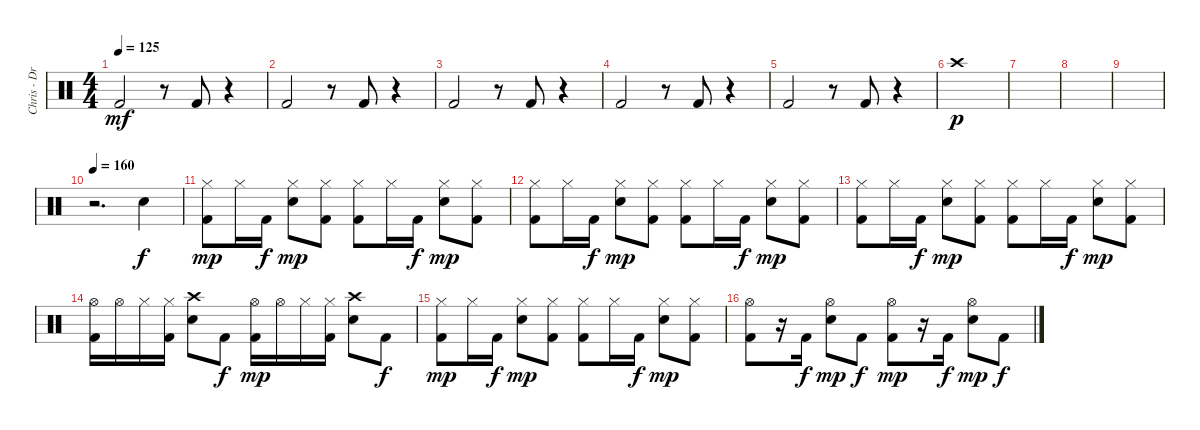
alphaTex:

\track ("Chris - Drums" "Chris - Dr") {instrument percussion}
\staff {score}
\articulation defaults
\ts (4 4)
\tempo 125
\clef neutral
\ks c "Kick (hit) 2".2{dy mf}
r.8 "Kick (hit) 2".8 r.4 |
"Kick (hit) 2".2 r.8 "Kick (hit) 2".8 r.4 |
"Kick (hit) 2".2 r.8 "Kick (hit) 2".8 r.4 |
"Kick (hit) 2".2 r.8 "Kick (hit) 2".8 r.4 |
"Kick (hit) 2".2 r.8 "Kick (hit) 2".8 r.4 |
"Crash high (hit)".1{dy p} |
|
|
|
\tempo 160
r.2{d} "Electric Snare (hit)".4{dy f} |
("Hi-Hat (closed)" "Kick (hit) 2").8{dy mp} "Hi-Hat (closed)".16 "Kick (hit) 2".16{dy f} ("Hi-Hat (closed)" "Electric Snare (hit)").8{dy mp} ("Hi-Hat (closed)" "Kick (hit) 2").8 ("Hi-Hat (closed)" "Kick (hit) 2").8 "Hi-Hat (closed)".16 "Kick (hit) 2".16{dy f} ("Hi-Hat (closed)" "Electric Snare (hit)").8{dy mp} ("Hi-Hat (closed)" "Kick (hit) 2").8 |
("Hi-Hat (closed)" "Kick (hit) 2").8 "Hi-Hat (closed)".16 "Kick (hit) 2".16{dy f} ("Hi-Hat (closed)" "Electric Snare (hit)").8{dy mp} ("Hi-Hat (closed)" "Kick (hit) 2").8 ("Hi-Hat (closed)" "Kick (hit) 2").8 "Hi-Hat (closed)".16 "Kick (hit) 2".16{dy f} ("Hi-Hat (closed)" "Electric Snare (hit)").8{dy mp} ("Hi-Hat (closed)" "Kick (hit) 2").8 |
("Hi-Hat (closed)" "Kick (hit) 2").8 "Hi-Hat (closed)".16 "Kick (hit) 2".16{dy f} ("Hi-Hat (closed)" "Electric Snare (hit)").8{dy mp} ("Hi-Hat (closed)" "Kick (hit) 2").8 ("Hi-Hat (closed)" "Kick (hit) 2").8 "Hi-Hat (closed)".16 "Kick (hit) 2".16{dy f} ("Hi-Hat (closed)" "Electric Snare (hit)").8{dy mp} ("Hi-Hat (closed)" "Kick (hit) 2").8 |
("Hi-Hat (open)" "Kick (hit) 2").16 "Hi-Hat (open)".16 "Hi-Hat (closed)".16 ("Hi-Hat (closed)" "Kick (hit) 2").16 ("Crash high (hit)" "Electric Snare (hit)").8 "Kick (hit) 2".8{dy f} ("Hi-Hat (open)" "Kick (hit) 2").16{dy mp} "Hi-Hat (open)".16 "Hi-Hat (closed)".16 ("Hi-Hat (closed)" "Kick (hit) 2").16 ("Crash high (hit)" "Electric Snare (hit)").8 "Kick (hit) 2".8{dy f} |
("Hi-Hat (closed)" "Kick (hit) 2").8{dy mp} "Hi-Hat (closed)".16 "Kick (hit) 2".16{dy f} ("Hi-Hat (closed)" "Electric Snare (hit)").8{dy mp} ("Hi-Hat (closed)" "Kick (hit) 2").8 ("Hi-Hat (closed)" "Kick (hit) 2").8 "Hi-Hat (closed)".16 "Kick (hit) 2".16{dy f} ("Hi-Hat (closed)" "Electric Snare (hit)").8{dy mp} ("Hi-Hat (closed)" "Kick (hit) 2").8 |
("Hi-Hat (open)" "Kick (hit) 2").8 r.16 "Kick (hit) 2".16{dy f} ("Hi-Hat (open)" "Electric Snare (hit)").8{dy mp} "Kick (hit) 2".8{dy f} ("Hi-Hat (open)" "Kick (hit) 2").8{dy mp} r.16 "Kick (hit) 2".16{dy f} ("Hi-Hat (open)" "Electric Snare (hit)").8{dy mp} "Kick (hit) 2".8{dy f}
